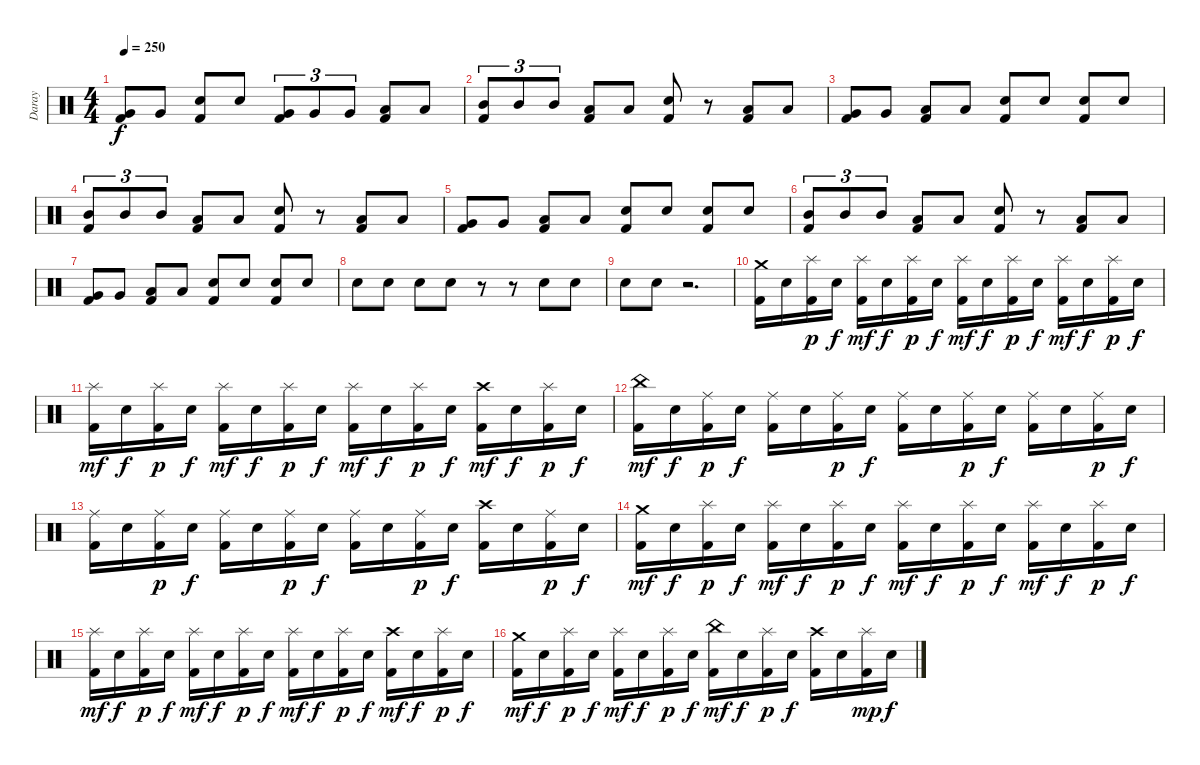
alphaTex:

\track ("Daray" "Daray") {instrument percussion}
\staff {score}
\articulation defaults
\ts (4 4)
\tempo 250
\clef neutral
\ks c
("Very Low Tom (hit)" "Kick (hit) 2").8{dy f} "Very Low Tom (hit)".8 ("Electric Snare (hit)" "Kick (hit) 2").8 "Electric Snare (hit)".8 ("Very Low Tom (hit)" "Kick (hit) 2").8{tu (3 2)} "Very Low Tom (hit)".8{tu (3 2)} "Very Low Tom (hit)".8{tu (3 2)} ("Low Floor Tom (hit)" "Kick (hit) 2").8 "Low Floor Tom (hit)".8 |
("Mid Tom (hit)" "Kick (hit) 2").8{tu (3 2)} "Mid Tom (hit)".8{tu (3 2)} "Mid Tom (hit)".8{tu (3 2)} ("Low Tom (hit)" "Kick (hit) 2").8 "Low Tom (hit)".8 ("Electric Snare (hit)" "Kick (hit) 2").8 r.8 ("Low Tom (hit)" "Kick (hit) 2").8 "Low Tom (hit)".8 |
("Very Low Tom (hit)" "Kick (hit) 2").8 "Very Low Tom (hit)".8 ("Low Floor Tom (hit)" "Kick (hit) 2").8 "Low Floor Tom (hit)".8 ("Electric Snare (hit)" "Kick (hit) 2").8 "Electric Snare (hit)".8 ("Electric Snare (hit)" "Kick (hit) 2").8 "Electric Snare (hit)".8 |
("Mid Tom (hit)" "Kick (hit) 2").8{tu (3 2)} "Mid Tom (hit)".8{tu (3 2)} "Mid Tom (hit)".8{tu (3 2)} ("Low Tom (hit)" "Kick (hit) 2").8 "Low Tom (hit)".8 ("Electric Snare (hit)" "Kick (hit) 2").8 r.8 ("Low Tom (hit)" "Kick (hit) 2").8 "Low Tom (hit)".8 |
("Very Low Tom (hit)" "Kick (hit) 2").8 "Very Low Tom (hit)".8 ("Low Floor Tom (hit)" "Kick (hit) 2").8 "Low Floor Tom (hit)".8 ("Electric Snare (hit)" "Kick (hit) 2").8 "Electric Snare (hit)".8 ("Electric Snare (hit)" "Kick (hit) 2").8 "Electric Snare (hit)".8 |
("Mid Tom (hit)" "Kick (hit) 2").8{tu (3 2)} "Mid Tom (hit)".8{tu (3 2)} "Mid Tom (hit)".8{tu (3 2)} ("Low Tom (hit)" "Kick (hit) 2").8 "Low Tom (hit)".8 ("Electric Snare (hit)" "Kick (hit) 2").8 r.8 ("Low Tom (hit)" "Kick (hit) 2").8 "Low Tom (hit)".8 |
("Very Low Tom (hit)" "Kick (hit) 2").8 "Very Low Tom (hit)".8 ("Low Floor Tom (hit)" "Kick (hit) 2").8 "Low Floor Tom (hit)".8 ("Electric Snare (hit)" "Kick (hit) 2").8 "Electric Snare (hit)".8 ("Electric Snare (hit)" "Kick (hit) 2").8 "Electric Snare (hit)".8 |
"Electric Snare (hit)".8 "Electric Snare (hit)".8 "Electric Snare (hit)".8 "Electric Snare (hit)".8 r.8 r.8 "Electric Snare (hit)".8 "Electric Snare (hit)".8 |
"Electric Snare (hit)".8 "Electric Snare (hit)".8 r.2{d} |
("Crash medium (hit)" "Kick (hit) 2").16 "Electric Snare (hit)".16 ("Splash (hit)" "Kick (hit) 2").16{dy p} "Electric Snare (hit)".16{dy f} ("Splash (hit)" "Kick (hit) 2").16{dy mf} "Electric Snare (hit)".16{dy f} ("Splash (hit)" "Kick (hit) 2").16{dy p} "Electric Snare (hit)".16{dy f} ("Splash (hit)" "Kick (hit) 2").16{dy mf} "Electric Snare (hit)".16{dy f} ("Splash (hit)" "Kick (hit) 2").16{dy p} "Electric Snare (hit)".16{dy f} ("Splash (hit)" "Kick (hit) 2").16{dy mf} "Electric Snare (hit)".16{dy f} ("Splash (hit)" "Kick (hit) 2").16{dy p} "Electric Snare (hit)".16{dy f} |
("Splash (hit)" "Kick (hit) 2").16{dy mf} "Electric Snare (hit)".16{dy f} ("Splash (hit)" "Kick (hit) 2").16{dy p} "Electric Snare (hit)".16{dy f} ("Splash (hit)" "Kick (hit) 2").16{dy mf} "Electric Snare (hit)".16{dy f} ("Splash (hit)" "Kick (hit) 2").16{dy p} "Electric Snare (hit)".16{dy f} ("Splash (hit)" "Kick (hit) 2").16{dy mf} "Electric Snare (hit)".16{dy f} ("Splash (hit)" "Kick (hit) 2").16{dy p} "Electric Snare (hit)".16{dy f} ("Crash high (hit)" "Kick (hit) 2").16{dy mf} "Electric Snare (hit)".16{dy f} ("Splash (hit)" "Kick (hit) 2").16{dy p} "Electric Snare (hit)".16{dy f} |
("China (hit)" "Kick (hit) 2").16{dy mf} "Electric Snare (hit)".16{dy f} ("Ride (middle)" "Kick (hit) 2").16{dy p} "Electric Snare (hit)".16{dy f} ("Ride (middle)" "Kick (hit) 2").16 "Electric Snare (hit)".16 ("Ride (middle)" "Kick (hit) 2").16{dy p} "Electric Snare (hit)".16{dy f} ("Ride (middle)" "Kick (hit) 2").16 "Electric Snare (hit)".16 ("Ride (middle)" "Kick (hit) 2").16{dy p} "Electric Snare (hit)".16{dy f} ("Ride (middle)" "Kick (hit) 2").16 "Electric Snare (hit)".16 ("Ride (middle)" "Kick (hit) 2").16{dy p} "Electric Snare (hit)".16{dy f} |
("Ride (middle)" "Kick (hit) 2").16 "Electric Snare (hit)".16 ("Ride (middle)" "Kick (hit) 2").16{dy p} "Electric Snare (hit)".16{dy f} ("Ride (middle)" "Kick (hit) 2").16 "Electric Snare (hit)".16 ("Ride (middle)" "Kick (hit) 2").16{dy p} "Electric Snare (hit)".16{dy f} ("Ride (middle)" "Kick (hit) 2").16 "Electric Snare (hit)".16 ("Ride (middle)" "Kick (hit) 2").16{dy p} "Electric Snare (hit)".16{dy f} ("Crash high (hit)" "Kick (hit) 2").16 "Electric Snare (hit)".16 ("Ride (middle)" "Kick (hit) 2").16{dy p} "Electric Snare (hit)".16{dy f} |
("Crash medium (hit)" "Kick (hit) 2").16{dy mf} "Electric Snare (hit)".16{dy f} ("Splash (hit)" "Kick (hit) 2").16{dy p} "Electric Snare (hit)".16{dy f} ("Splash (hit)" "Kick (hit) 2").16{dy mf} "Electric Snare (hit)".16{dy f} ("Splash (hit)" "Kick (hit) 2").16{dy p} "Electric Snare (hit)".16{dy f} ("Splash (hit)" "Kick (hit) 2").16{dy mf} "Electric Snare (hit)".16{dy f} ("Splash (hit)" "Kick (hit) 2").16{dy p} "Electric Snare (hit)".16{dy f} ("Splash (hit)" "Kick (hit) 2").16{dy mf} "Electric Snare (hit)".16{dy f} ("Splash (hit)" "Kick (hit) 2").16{dy p} "Electric Snare (hit)".16{dy f} |
("Splash (hit)" "Kick (hit) 2").16{dy mf} "Electric Snare (hit)".16{dy f} ("Splash (hit)" "Kick (hit) 2").16{dy p} "Electric Snare (hit)".16{dy f} ("Splash (hit)" "Kick (hit) 2").16{dy mf} "Electric Snare (hit)".16{dy f} ("Splash (hit)" "Kick (hit) 2").16{dy p} "Electric Snare (hit)".16{dy f} ("Splash (hit)" "Kick (hit) 2").16{dy mf} "Electric Snare (hit)".16{dy f} ("Splash (hit)" "Kick (hit) 2").16{dy p} "Electric Snare (hit)".16{dy f} ("Crash high (hit)" "Kick (hit) 2").16{dy mf} "Electric Snare (hit)".16{dy f} ("Splash (hit)" "Kick (hit) 2").16{dy p} "Electric Snare (hit)".16{dy f} |
("Crash medium (hit)" "Kick (hit) 2").16{dy mf} "Electric Snare (hit)".16{dy f} ("Splash (hit)" "Kick (hit) 2").16{dy p} "Electric Snare (hit)".16{dy f} ("Splash (hit)" "Kick (hit) 2").16{dy mf} "Electric Snare (hit)".16{dy f} ("Splash (hit)" "Kick (hit) 2").16{dy p} "Electric Snare (hit)".16{dy f} ("China (hit)" "Kick (hit) 2").16{dy mf} "Electric Snare (hit)".16{dy f} ("Splash (hit)" "Kick (hit) 2").16{dy p} "Electric Snare (hit)".16{dy f} ("Crash high (hit)" "Kick (hit) 2").16 "Electric Snare (hit)".16 ("Splash (hit)" "Kick (hit) 2").16{dy mp} "Electric Snare (hit)".16{dy f}
